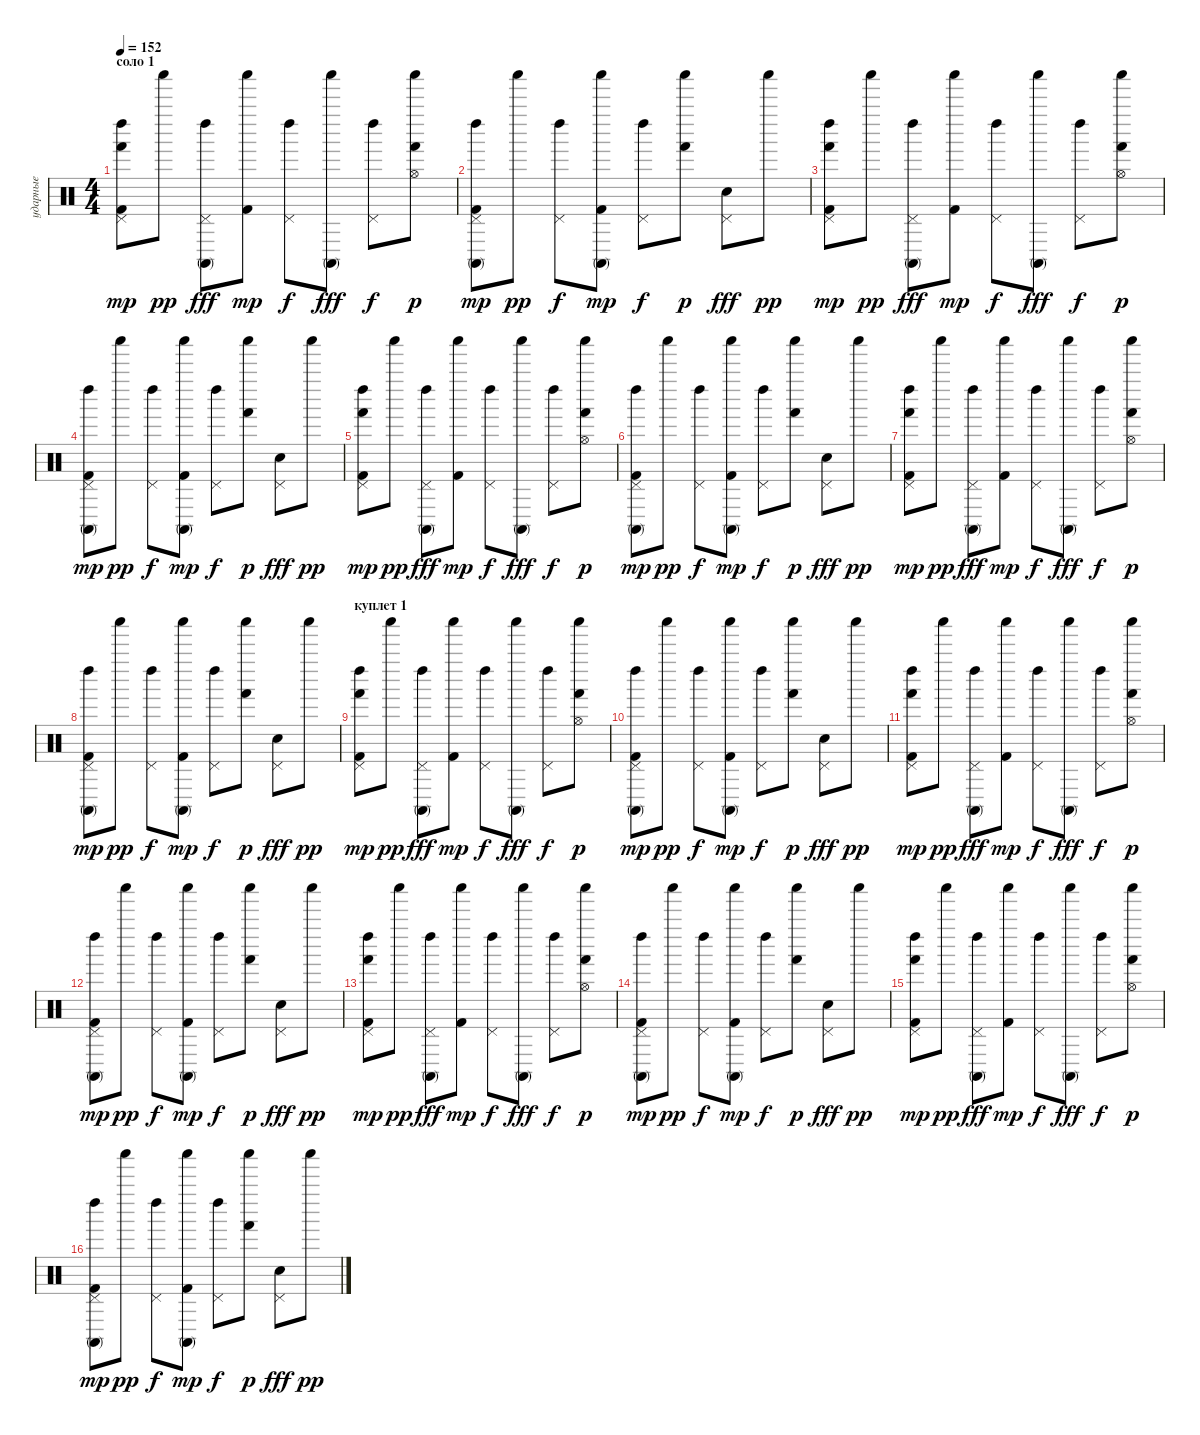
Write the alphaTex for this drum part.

\track ("ударные" "ударные") {instrument percussion}
\staff {score}
\articulation defaults
\ts (4 4)
\section ("" "соло 1")
\tempo 152
\clef neutral
\ks c
("Pedal Hi-Hat (hit)" "Left Maraca (hit)" "Hand (hit)" "Kick (hit) 2").8{dy mp} "Shaker (hit)".8{dy pp} ("Pedal Hi-Hat (hit)" "Left Maraca (hit)" "Conga high (mute)").8{dy fff} ("Shaker (hit)" "Kick (hit) 2").8{dy mp} ("Pedal Hi-Hat (hit)" "Left Maraca (hit)").8{dy f} ("Shaker (hit)" "Conga high (mute)").8{dy fff} ("Pedal Hi-Hat (hit)" "Left Maraca (hit)").8{dy f} ("Shaker (hit)" "Hi-Hat (open)" "Hand (hit)").8{dy p} |
("Pedal Hi-Hat (hit)" "Left Maraca (hit)" "Conga high (mute)" "Kick (hit) 2").8{dy mp} "Shaker (hit)".8{dy pp} ("Pedal Hi-Hat (hit)" "Left Maraca (hit)").8{dy f} ("Shaker (hit)" "Conga high (mute)" "Kick (hit) 2").8{dy mp} ("Pedal Hi-Hat (hit)" "Left Maraca (hit)").8{dy f} ("Shaker (hit)" "Hand (hit)").8{dy p} ("Pedal Hi-Hat (hit)" "Snare (hit) 2").8{dy fff} "Shaker (hit)".8{dy pp} |
("Pedal Hi-Hat (hit)" "Left Maraca (hit)" "Hand (hit)" "Kick (hit) 2").8{dy mp} "Shaker (hit)".8{dy pp} ("Pedal Hi-Hat (hit)" "Left Maraca (hit)" "Conga high (mute)").8{dy fff} ("Shaker (hit)" "Kick (hit) 2").8{dy mp} ("Pedal Hi-Hat (hit)" "Left Maraca (hit)").8{dy f} ("Shaker (hit)" "Conga high (mute)").8{dy fff} ("Pedal Hi-Hat (hit)" "Left Maraca (hit)").8{dy f} ("Shaker (hit)" "Hi-Hat (open)" "Hand (hit)").8{dy p} |
("Pedal Hi-Hat (hit)" "Left Maraca (hit)" "Conga high (mute)" "Kick (hit) 2").8{dy mp} "Shaker (hit)".8{dy pp} ("Pedal Hi-Hat (hit)" "Left Maraca (hit)").8{dy f} ("Shaker (hit)" "Conga high (mute)" "Kick (hit) 2").8{dy mp} ("Pedal Hi-Hat (hit)" "Left Maraca (hit)").8{dy f} ("Shaker (hit)" "Hand (hit)").8{dy p} ("Pedal Hi-Hat (hit)" "Snare (hit) 2").8{dy fff} "Shaker (hit)".8{dy pp} |
("Pedal Hi-Hat (hit)" "Left Maraca (hit)" "Hand (hit)" "Kick (hit) 2").8{dy mp} "Shaker (hit)".8{dy pp} ("Pedal Hi-Hat (hit)" "Left Maraca (hit)" "Conga high (mute)").8{dy fff} ("Shaker (hit)" "Kick (hit) 2").8{dy mp} ("Pedal Hi-Hat (hit)" "Left Maraca (hit)").8{dy f} ("Shaker (hit)" "Conga high (mute)").8{dy fff} ("Pedal Hi-Hat (hit)" "Left Maraca (hit)").8{dy f} ("Shaker (hit)" "Hi-Hat (open)" "Hand (hit)").8{dy p} |
("Pedal Hi-Hat (hit)" "Left Maraca (hit)" "Conga high (mute)" "Kick (hit) 2").8{dy mp} "Shaker (hit)".8{dy pp} ("Pedal Hi-Hat (hit)" "Left Maraca (hit)").8{dy f} ("Shaker (hit)" "Conga high (mute)" "Kick (hit) 2").8{dy mp} ("Pedal Hi-Hat (hit)" "Left Maraca (hit)").8{dy f} ("Shaker (hit)" "Hand (hit)").8{dy p} ("Pedal Hi-Hat (hit)" "Snare (hit) 2").8{dy fff} "Shaker (hit)".8{dy pp} |
("Pedal Hi-Hat (hit)" "Left Maraca (hit)" "Hand (hit)" "Kick (hit) 2").8{dy mp} "Shaker (hit)".8{dy pp} ("Pedal Hi-Hat (hit)" "Left Maraca (hit)" "Conga high (mute)").8{dy fff} ("Shaker (hit)" "Kick (hit) 2").8{dy mp} ("Pedal Hi-Hat (hit)" "Left Maraca (hit)").8{dy f} ("Shaker (hit)" "Conga high (mute)").8{dy fff} ("Pedal Hi-Hat (hit)" "Left Maraca (hit)").8{dy f} ("Shaker (hit)" "Hi-Hat (open)" "Hand (hit)").8{dy p} |
("Pedal Hi-Hat (hit)" "Left Maraca (hit)" "Conga high (mute)" "Kick (hit) 2").8{dy mp} "Shaker (hit)".8{dy pp} ("Pedal Hi-Hat (hit)" "Left Maraca (hit)").8{dy f} ("Shaker (hit)" "Conga high (mute)" "Kick (hit) 2").8{dy mp} ("Pedal Hi-Hat (hit)" "Left Maraca (hit)").8{dy f} ("Shaker (hit)" "Hand (hit)").8{dy p} ("Pedal Hi-Hat (hit)" "Snare (hit) 2").8{dy fff} "Shaker (hit)".8{dy pp} |
\section ("" "куплет 1")
("Pedal Hi-Hat (hit)" "Left Maraca (hit)" "Hand (hit)" "Kick (hit) 2").8{dy mp} "Shaker (hit)".8{dy pp} ("Pedal Hi-Hat (hit)" "Left Maraca (hit)" "Conga high (mute)").8{dy fff} ("Shaker (hit)" "Kick (hit) 2").8{dy mp} ("Pedal Hi-Hat (hit)" "Left Maraca (hit)").8{dy f} ("Shaker (hit)" "Conga high (mute)").8{dy fff} ("Pedal Hi-Hat (hit)" "Left Maraca (hit)").8{dy f} ("Shaker (hit)" "Hi-Hat (open)" "Hand (hit)").8{dy p} |
("Pedal Hi-Hat (hit)" "Left Maraca (hit)" "Conga high (mute)" "Kick (hit) 2").8{dy mp} "Shaker (hit)".8{dy pp} ("Pedal Hi-Hat (hit)" "Left Maraca (hit)").8{dy f} ("Shaker (hit)" "Conga high (mute)" "Kick (hit) 2").8{dy mp} ("Pedal Hi-Hat (hit)" "Left Maraca (hit)").8{dy f} ("Shaker (hit)" "Hand (hit)").8{dy p} ("Pedal Hi-Hat (hit)" "Snare (hit) 2").8{dy fff} "Shaker (hit)".8{dy pp} |
("Pedal Hi-Hat (hit)" "Left Maraca (hit)" "Hand (hit)" "Kick (hit) 2").8{dy mp} "Shaker (hit)".8{dy pp} ("Pedal Hi-Hat (hit)" "Left Maraca (hit)" "Conga high (mute)").8{dy fff} ("Shaker (hit)" "Kick (hit) 2").8{dy mp} ("Pedal Hi-Hat (hit)" "Left Maraca (hit)").8{dy f} ("Shaker (hit)" "Conga high (mute)").8{dy fff} ("Pedal Hi-Hat (hit)" "Left Maraca (hit)").8{dy f} ("Shaker (hit)" "Hi-Hat (open)" "Hand (hit)").8{dy p} |
("Pedal Hi-Hat (hit)" "Left Maraca (hit)" "Conga high (mute)" "Kick (hit) 2").8{dy mp} "Shaker (hit)".8{dy pp} ("Pedal Hi-Hat (hit)" "Left Maraca (hit)").8{dy f} ("Shaker (hit)" "Conga high (mute)" "Kick (hit) 2").8{dy mp} ("Pedal Hi-Hat (hit)" "Left Maraca (hit)").8{dy f} ("Shaker (hit)" "Hand (hit)").8{dy p} ("Pedal Hi-Hat (hit)" "Snare (hit) 2").8{dy fff} "Shaker (hit)".8{dy pp} |
("Pedal Hi-Hat (hit)" "Left Maraca (hit)" "Hand (hit)" "Kick (hit) 2").8{dy mp} "Shaker (hit)".8{dy pp} ("Pedal Hi-Hat (hit)" "Left Maraca (hit)" "Conga high (mute)").8{dy fff} ("Shaker (hit)" "Kick (hit) 2").8{dy mp} ("Pedal Hi-Hat (hit)" "Left Maraca (hit)").8{dy f} ("Shaker (hit)" "Conga high (mute)").8{dy fff} ("Pedal Hi-Hat (hit)" "Left Maraca (hit)").8{dy f} ("Shaker (hit)" "Hi-Hat (open)" "Hand (hit)").8{dy p} |
("Pedal Hi-Hat (hit)" "Left Maraca (hit)" "Conga high (mute)" "Kick (hit) 2").8{dy mp} "Shaker (hit)".8{dy pp} ("Pedal Hi-Hat (hit)" "Left Maraca (hit)").8{dy f} ("Shaker (hit)" "Conga high (mute)" "Kick (hit) 2").8{dy mp} ("Pedal Hi-Hat (hit)" "Left Maraca (hit)").8{dy f} ("Shaker (hit)" "Hand (hit)").8{dy p} ("Pedal Hi-Hat (hit)" "Snare (hit) 2").8{dy fff} "Shaker (hit)".8{dy pp} |
("Pedal Hi-Hat (hit)" "Left Maraca (hit)" "Hand (hit)" "Kick (hit) 2").8{dy mp} "Shaker (hit)".8{dy pp} ("Pedal Hi-Hat (hit)" "Left Maraca (hit)" "Conga high (mute)").8{dy fff} ("Shaker (hit)" "Kick (hit) 2").8{dy mp} ("Pedal Hi-Hat (hit)" "Left Maraca (hit)").8{dy f} ("Shaker (hit)" "Conga high (mute)").8{dy fff} ("Pedal Hi-Hat (hit)" "Left Maraca (hit)").8{dy f} ("Shaker (hit)" "Hi-Hat (open)" "Hand (hit)").8{dy p} |
("Pedal Hi-Hat (hit)" "Left Maraca (hit)" "Conga high (mute)" "Kick (hit) 2").8{dy mp} "Shaker (hit)".8{dy pp} ("Pedal Hi-Hat (hit)" "Left Maraca (hit)").8{dy f} ("Shaker (hit)" "Conga high (mute)" "Kick (hit) 2").8{dy mp} ("Pedal Hi-Hat (hit)" "Left Maraca (hit)").8{dy f} ("Shaker (hit)" "Hand (hit)").8{dy p} ("Pedal Hi-Hat (hit)" "Snare (hit) 2").8{dy fff} "Shaker (hit)".8{dy pp}
